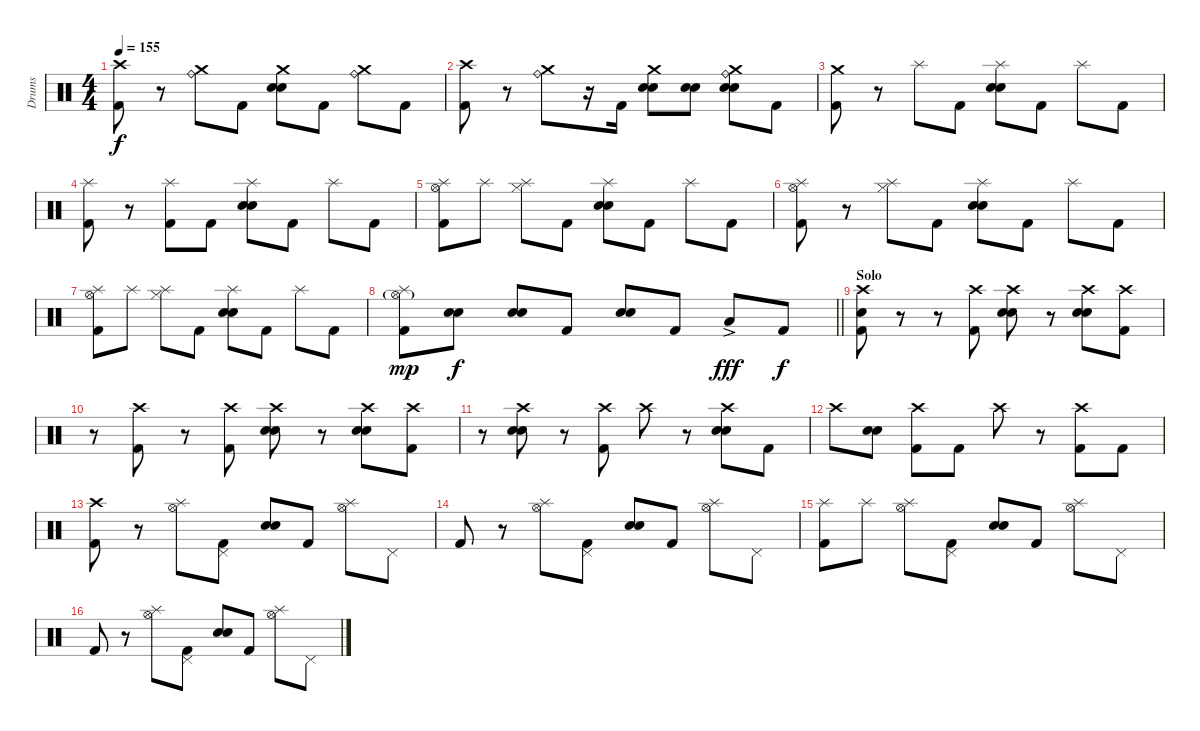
\track ("Drums" "Drums") {instrument percussion}
\staff {score}
\articulation defaults
\ts (4 4)
\section ("" "")
\tempo 155
\clef neutral
\ks c
("Crash high (hit)" "Kick (hit) 2").8{dy f} r.8 ("Crash medium (hit)" "Ride (bell)").8 "Kick (hit) 2".8 ("Crash medium (hit)" "Snare (hit) 2" "Electric Snare (hit)").8 "Kick (hit) 2".8 ("Crash medium (hit)" "Ride (bell)").8 "Kick (hit) 2".8 |
("Crash high (hit)" "Kick (hit) 2").8 r.8 ("Crash medium (hit)" "Ride (bell)").8 r.16 "Kick (hit) 2".16 ("Crash medium (hit)" "Snare (hit) 2" "Electric Snare (hit)").8 ("Snare (hit) 2" "Electric Snare (hit)").8 ("Crash medium (hit)" "Ride (bell)" "Snare (hit) 2" "Electric Snare (hit)").8 "Kick (hit) 2".8 |
("Crash medium (hit)" "Kick (hit) 2").8 r.8 "Splash (hit)".8 "Kick (hit) 2".8 ("Splash (hit)" "Snare (hit) 2" "Electric Snare (hit)").8 "Kick (hit) 2".8 "Splash (hit)".8 "Kick (hit) 2".8 |
("Splash (hit)" "Kick (hit) 2").8 r.8 ("Splash (hit)" "Kick (hit) 2").8 "Kick (hit) 2".8 ("Splash (hit)" "Snare (hit) 2" "Electric Snare (hit)").8 "Kick (hit) 2".8 "Splash (hit)".8 "Kick (hit) 2".8 |
("Splash (hit)" "Hi-Hat (open)" "Kick (hit) 2").8 "Splash (hit)".8 ("Splash (hit)" "Hi-Hat (closed)").8 "Kick (hit) 2".8 ("Splash (hit)" "Snare (hit) 2" "Electric Snare (hit)").8 "Kick (hit) 2".8 "Splash (hit)".8 "Kick (hit) 2".8 |
("Splash (hit)" "Hi-Hat (open)" "Kick (hit) 2").8 r.8 ("Splash (hit)" "Hi-Hat (closed)").8 "Kick (hit) 2".8 ("Splash (hit)" "Snare (hit) 2" "Electric Snare (hit)").8 "Kick (hit) 2".8 "Splash (hit)".8 "Kick (hit) 2".8 |
("Splash (hit)" "Hi-Hat (open)" "Kick (hit) 2").8 "Splash (hit)".8 ("Splash (hit)" "Hi-Hat (closed)").8 "Kick (hit) 2".8 ("Splash (hit)" "Snare (hit) 2" "Electric Snare (hit)").8 "Kick (hit) 2".8 "Splash (hit)".8 "Kick (hit) 2".8 |
\barLineRight lightlight
("Splash (hit)" "Hi-Hat (open)"{g} "Kick (hit) 2").8{dy mp} ("Snare (hit) 2" "Electric Snare (hit)").8{dy f} ("Snare (hit) 2" "Electric Snare (hit)").8 "Kick (hit) 2".8 ("Snare (hit) 2" "Electric Snare (hit)").8 "Kick (hit) 2".8 "Low Floor Tom (hit)"{ac}.8{dy fff} "Kick (hit) 2".8{dy f} |
\section ("" "Solo")
("Crash high (hit)" "Snare (hit) 2" "Kick (hit) 2").8 r.8 r.8 ("Crash high (hit)" "Kick (hit) 2").8 ("Crash high (hit)" "Snare (hit) 2" "Electric Snare (hit)").8 r.8 ("Crash high (hit)" "Snare (hit) 2" "Electric Snare (hit)").8 ("Crash high (hit)" "Kick (hit) 2").8 |
r.8 ("Crash high (hit)" "Kick (hit) 2").8 r.8 ("Crash high (hit)" "Kick (hit) 2").8 ("Crash high (hit)" "Snare (hit) 2" "Electric Snare (hit)").8 r.8 ("Crash high (hit)" "Snare (hit) 2" "Electric Snare (hit)").8 ("Crash high (hit)" "Kick (hit) 2").8 |
r.8 ("Crash high (hit)" "Snare (hit) 2" "Electric Snare (hit)").8 r.8 ("Crash high (hit)" "Kick (hit) 2").8 "Crash high (hit)".8 r.8 ("Crash high (hit)" "Snare (hit) 2" "Electric Snare (hit)").8 "Kick (hit) 2".8 |
"Crash high (hit)".8 ("Snare (hit) 2" "Electric Snare (hit)").8 ("Crash high (hit)" "Kick (hit) 2").8 "Kick (hit) 2".8 "Crash high (hit)".8 r.8 ("Crash high (hit)" "Kick (hit) 2").8 "Kick (hit) 2".8 |
("Crash high (hit)" "Kick (hit) 2").8 r.8 ("Splash (hit)" "Hi-Hat (open)").8 ("Pedal Hi-Hat (hit)" "Kick (hit) 2").8 ("Snare (hit) 2" "Electric Snare (hit)").8 "Kick (hit) 2".8 ("Splash (hit)" "Hi-Hat (open)").8 "Pedal Hi-Hat (hit)".8 |
"Kick (hit) 2".8 r.8 ("Splash (hit)" "Hi-Hat (open)").8 ("Pedal Hi-Hat (hit)" "Kick (hit) 2").8 ("Snare (hit) 2" "Electric Snare (hit)").8 "Kick (hit) 2".8 ("Splash (hit)" "Hi-Hat (open)").8 "Pedal Hi-Hat (hit)".8 |
("Splash (hit)" "Kick (hit) 2").8 "Splash (hit)".8 ("Splash (hit)" "Hi-Hat (open)").8 ("Pedal Hi-Hat (hit)" "Kick (hit) 2").8 ("Snare (hit) 2" "Electric Snare (hit)").8 "Kick (hit) 2".8 ("Splash (hit)" "Hi-Hat (open)").8 "Pedal Hi-Hat (hit)".8 |
"Kick (hit) 2".8 r.8 ("Splash (hit)" "Hi-Hat (open)").8 ("Pedal Hi-Hat (hit)" "Kick (hit) 2").8 ("Snare (hit) 2" "Electric Snare (hit)").8 "Kick (hit) 2".8 ("Splash (hit)" "Hi-Hat (open)").8 "Pedal Hi-Hat (hit)".8
